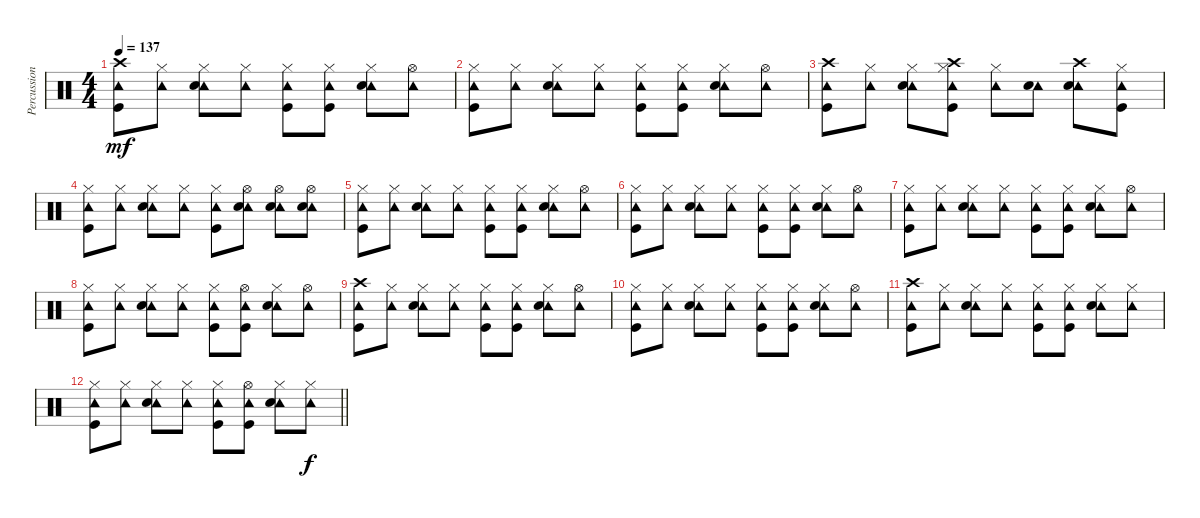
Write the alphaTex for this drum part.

\track ("Percussion" "Percussion") {instrument percussion}
\staff {score}
\articulation defaults
\ts (4 4)
\tempo 137
\clef neutral
\ks c
("Tambourine (hit)" "Crash high (hit)" "Kick (hit)").8{dy mf volume 8} ("Tambourine (hit)" "Hi-Hat (closed)").8 ("Tambourine (hit)" "Hi-Hat (closed)" "Snare (hit) 2").8 ("Tambourine (hit)" "Hi-Hat (closed)").8 ("Tambourine (hit)" "Hi-Hat (closed)" "Kick (hit)").8 ("Tambourine (hit)" "Hi-Hat (closed)" "Kick (hit)").8 ("Tambourine (hit)" "Hi-Hat (closed)" "Snare (hit) 2").8 ("Tambourine (hit)" "Hi-Hat (open)").8 |
("Tambourine (hit)" "Hi-Hat (closed)" "Kick (hit)").8 ("Tambourine (hit)" "Hi-Hat (closed)").8 ("Tambourine (hit)" "Hi-Hat (closed)" "Snare (hit) 2").8 ("Tambourine (hit)" "Hi-Hat (closed)").8 ("Tambourine (hit)" "Hi-Hat (closed)" "Kick (hit)").8 ("Tambourine (hit)" "Hi-Hat (closed)" "Kick (hit)").8 ("Tambourine (hit)" "Hi-Hat (closed)" "Snare (hit) 2").8 ("Tambourine (hit)" "Hi-Hat (open)").8 |
("Tambourine (hit)" "Crash high (hit)" "Kick (hit)").8 ("Tambourine (hit)" "Hi-Hat (closed)").8 ("Tambourine (hit)" "Hi-Hat (closed)" "Snare (hit) 2").8 ("Tambourine (hit)" "Crash high (hit)" "Hi-Hat (closed)" "Kick (hit)").8 ("Tambourine (hit)" "Hi-Hat (closed)").8 ("Tambourine (hit)" "Snare (hit) 2").8 ("Tambourine (hit)" "Crash high (hit)" "Snare (hit) 2").8 ("Tambourine (hit)" "Hi-Hat (closed)" "Kick (hit)").8 |
("Tambourine (hit)" "Hi-Hat (closed)" "Kick (hit)").8 ("Tambourine (hit)" "Hi-Hat (closed)").8 ("Tambourine (hit)" "Hi-Hat (closed)" "Snare (hit) 2").8 ("Tambourine (hit)" "Hi-Hat (closed)").8 ("Tambourine (hit)" "Hi-Hat (closed)" "Kick (hit)").8 ("Tambourine (hit)" "Hi-Hat (open)" "Snare (hit) 2").8 ("Tambourine (hit)" "Hi-Hat (open)" "Snare (hit) 2").8 ("Tambourine (hit)" "Hi-Hat (open)" "Snare (hit) 2").8 |
("Tambourine (hit)" "Hi-Hat (closed)" "Kick (hit)").8{volume 0} ("Tambourine (hit)" "Hi-Hat (closed)").8 ("Tambourine (hit)" "Hi-Hat (closed)" "Snare (hit) 2").8 ("Tambourine (hit)" "Hi-Hat (closed)").8 ("Tambourine (hit)" "Hi-Hat (closed)" "Kick (hit)").8 ("Tambourine (hit)" "Hi-Hat (closed)" "Kick (hit)").8 ("Tambourine (hit)" "Hi-Hat (closed)" "Snare (hit) 2").8 ("Tambourine (hit)" "Hi-Hat (open)").8 |
("Tambourine (hit)" "Hi-Hat (closed)" "Kick (hit)").8 ("Tambourine (hit)" "Hi-Hat (closed)").8 ("Tambourine (hit)" "Hi-Hat (closed)" "Snare (hit) 2").8 ("Tambourine (hit)" "Hi-Hat (closed)").8 ("Tambourine (hit)" "Hi-Hat (closed)" "Kick (hit)").8 ("Tambourine (hit)" "Hi-Hat (closed)" "Kick (hit)").8 ("Tambourine (hit)" "Hi-Hat (closed)" "Snare (hit) 2").8 ("Tambourine (hit)" "Hi-Hat (open)").8 |
("Tambourine (hit)" "Hi-Hat (closed)" "Kick (hit)").8 ("Tambourine (hit)" "Hi-Hat (closed)").8 ("Tambourine (hit)" "Hi-Hat (closed)" "Snare (hit) 2").8 ("Tambourine (hit)" "Hi-Hat (closed)").8 ("Tambourine (hit)" "Hi-Hat (closed)" "Kick (hit)").8 ("Tambourine (hit)" "Hi-Hat (closed)" "Kick (hit)").8 ("Tambourine (hit)" "Hi-Hat (closed)" "Snare (hit) 2").8 ("Tambourine (hit)" "Hi-Hat (open)").8 |
("Tambourine (hit)" "Hi-Hat (closed)" "Kick (hit)").8 ("Tambourine (hit)" "Hi-Hat (closed)").8 ("Tambourine (hit)" "Hi-Hat (closed)" "Snare (hit) 2").8 ("Tambourine (hit)" "Hi-Hat (closed)").8 ("Tambourine (hit)" "Hi-Hat (closed)" "Kick (hit)").8 ("Tambourine (hit)" "Hi-Hat (open)" "Kick (hit)").8 ("Tambourine (hit)" "Hi-Hat (closed)" "Snare (hit) 2").8 ("Tambourine (hit)" "Hi-Hat (open)").8 |
("Tambourine (hit)" "Crash high (hit)" "Kick (hit)").8 ("Tambourine (hit)" "Hi-Hat (closed)").8 ("Tambourine (hit)" "Hi-Hat (closed)" "Snare (hit) 2").8 ("Tambourine (hit)" "Hi-Hat (closed)").8 ("Tambourine (hit)" "Hi-Hat (closed)" "Kick (hit)").8 ("Tambourine (hit)" "Hi-Hat (closed)" "Kick (hit)").8 ("Tambourine (hit)" "Hi-Hat (closed)" "Snare (hit) 2").8 ("Tambourine (hit)" "Hi-Hat (open)").8 |
("Tambourine (hit)" "Hi-Hat (closed)" "Kick (hit)").8 ("Tambourine (hit)" "Hi-Hat (closed)").8 ("Tambourine (hit)" "Hi-Hat (closed)" "Snare (hit) 2").8 ("Tambourine (hit)" "Hi-Hat (closed)").8 ("Tambourine (hit)" "Hi-Hat (closed)" "Kick (hit)").8 ("Tambourine (hit)" "Hi-Hat (closed)" "Kick (hit)").8 ("Tambourine (hit)" "Hi-Hat (closed)" "Snare (hit) 2").8 ("Tambourine (hit)" "Hi-Hat (open)").8 |
("Tambourine (hit)" "Crash high (hit)" "Kick (hit)").8 ("Tambourine (hit)" "Hi-Hat (closed)").8 ("Tambourine (hit)" "Hi-Hat (closed)" "Snare (hit) 2").8 ("Tambourine (hit)" "Hi-Hat (closed)").8 ("Tambourine (hit)" "Hi-Hat (closed)" "Kick (hit)").8 ("Tambourine (hit)" "Hi-Hat (closed)" "Kick (hit)").8 ("Tambourine (hit)" "Hi-Hat (closed)" "Snare (hit) 2").8 ("Tambourine (hit)" "Hi-Hat (closed)").8 |
\barLineRight lightlight
("Tambourine (hit)" "Hi-Hat (closed)" "Kick (hit)").8 ("Tambourine (hit)" "Hi-Hat (closed)").8 ("Tambourine (hit)" "Hi-Hat (closed)" "Snare (hit) 2").8 ("Tambourine (hit)" "Hi-Hat (closed)").8 ("Tambourine (hit)" "Hi-Hat (closed)" "Kick (hit)").8 ("Tambourine (hit)" "Hi-Hat (open)" "Kick (hit)").8 ("Tambourine (hit)" "Hi-Hat (closed)" "Snare (hit) 2").8 ("Tambourine (hit)" "Hi-Hat (closed)").8{dy f}
